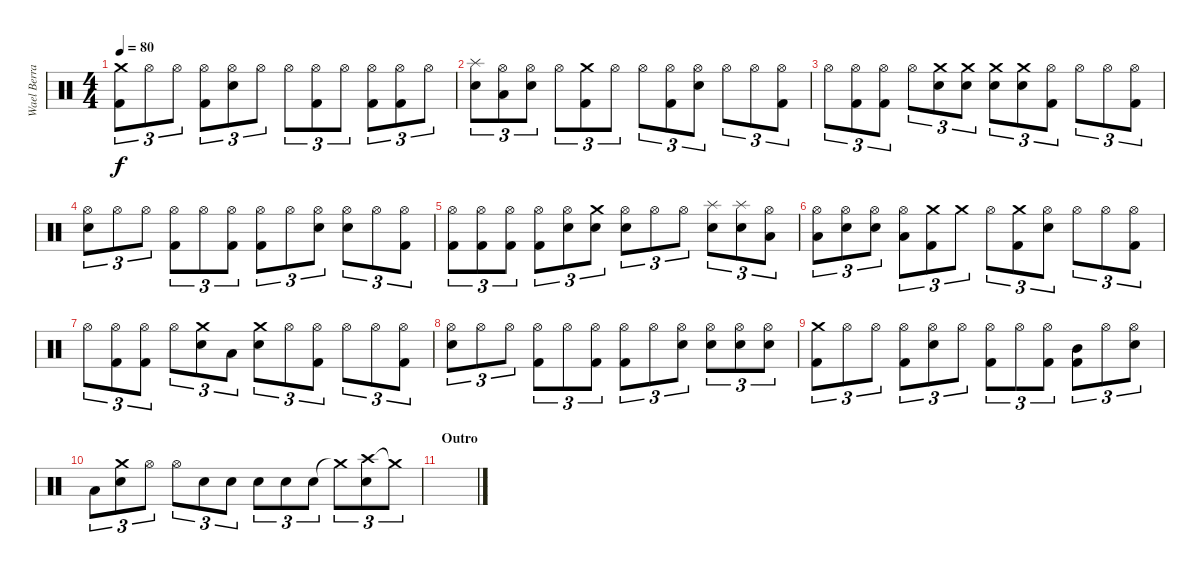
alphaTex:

\track ("Wael Berrais" "Wael Berra") {instrument percussion}
\staff {score}
\articulation defaults
\ts (4 4)
\tempo 80
\clef neutral
\ks c
("Crash medium (hit)" "Kick (hit) 2").8{tu (3 2) dy f} "Hi-Hat (open)".8{tu (3 2)} "Hi-Hat (open)".8{tu (3 2)} ("Hi-Hat (open)" "Kick (hit) 2").8{tu (3 2)} ("Hi-Hat (open)" "Electric Snare (hit)").8{tu (3 2)} "Hi-Hat (open)".8{tu (3 2)} "Hi-Hat (open)".8{tu (3 2)} ("Hi-Hat (open)" "Kick (hit) 2").8{tu (3 2)} "Hi-Hat (open)".8{tu (3 2)} ("Hi-Hat (open)" "Kick (hit) 2").8{tu (3 2)} ("Hi-Hat (open)" "Kick (hit) 2").8{tu (3 2)} "Hi-Hat (open)".8{tu (3 2)} |
("Splash (hit)" "Electric Snare (hit)").8{tu (3 2)} ("Hi-Hat (open)" "Low Tom (hit)").8{tu (3 2)} ("Hi-Hat (open)" "Electric Snare (hit)").8{tu (3 2)} "Hi-Hat (open)".8{tu (3 2)} ("Crash medium (hit)" "Kick (hit) 2").8{tu (3 2)} "Hi-Hat (open)".8{tu (3 2)} "Hi-Hat (open)".8{tu (3 2)} ("Hi-Hat (open)" "Kick (hit) 2").8{tu (3 2)} ("Hi-Hat (open)" "Electric Snare (hit)").8{tu (3 2)} "Hi-Hat (open)".8{tu (3 2)} "Hi-Hat (open)".8{tu (3 2)} ("Hi-Hat (open)" "Kick (hit) 2").8{tu (3 2)} |
"Hi-Hat (open)".8{tu (3 2)} ("Hi-Hat (open)" "Kick (hit) 2").8{tu (3 2)} ("Hi-Hat (open)" "Kick (hit) 2").8{tu (3 2)} "Hi-Hat (open)".8{tu (3 2)} ("Crash medium (hit)" "Electric Snare (hit)").8{tu (3 2)} ("Crash medium (hit)" "Electric Snare (hit)").8{tu (3 2)} ("Crash medium (hit)" "Electric Snare (hit)").8{tu (3 2)} ("Crash medium (hit)" "Electric Snare (hit)").8{tu (3 2)} ("Hi-Hat (open)" "Kick (hit) 2").8{tu (3 2)} "Hi-Hat (open)".8{tu (3 2)} "Hi-Hat (open)".8{tu (3 2)} ("Hi-Hat (open)" "Kick (hit) 2").8{tu (3 2)} |
("Hi-Hat (open)" "Electric Snare (hit)").8{tu (3 2)} "Hi-Hat (open)".8{tu (3 2)} "Hi-Hat (open)".8{tu (3 2)} ("Hi-Hat (open)" "Kick (hit) 2").8{tu (3 2)} "Hi-Hat (open)".8{tu (3 2)} ("Hi-Hat (open)" "Kick (hit) 2").8{tu (3 2)} ("Hi-Hat (open)" "Kick (hit) 2").8{tu (3 2)} "Hi-Hat (open)".8{tu (3 2)} ("Hi-Hat (open)" "Electric Snare (hit)").8{tu (3 2)} ("Hi-Hat (open)" "Electric Snare (hit)").8{tu (3 2)} "Hi-Hat (open)".8{tu (3 2)} ("Kick (hit) 2" "Hi-Hat (open)").8{tu (3 2)} |
("Kick (hit) 2" "Hi-Hat (open)").8{tu (3 2)} ("Kick (hit) 2" "Hi-Hat (open)").8{tu (3 2)} ("Kick (hit) 2" "Hi-Hat (open)").8{tu (3 2)} ("Kick (hit) 2" "Hi-Hat (open)").8{tu (3 2)} ("Hi-Hat (open)" "Electric Snare (hit)").8{tu (3 2)} ("Crash medium (hit)" "Electric Snare (hit)").8{tu (3 2)} ("Hi-Hat (open)" "Electric Snare (hit)").8{tu (3 2)} "Hi-Hat (open)".8{tu (3 2)} "Hi-Hat (open)".8{tu (3 2)} ("Electric Snare (hit)" "Splash (hit)").8{tu (3 2)} ("Electric Snare (hit)" "Splash (hit)").8{tu (3 2)} ("Hi-Hat (open)" "Low Tom (hit)").8{tu (3 2)} |
("Hi-Hat (open)" "Low Tom (hit)").8{tu (3 2)} ("Hi-Hat (open)" "Electric Snare (hit)").8{tu (3 2)} ("Hi-Hat (open)" "Electric Snare (hit)").8{tu (3 2)} ("Hi-Hat (open)" "Low Tom (hit)").8{tu (3 2)} ("Crash medium (hit)" "Kick (hit) 2").8{tu (3 2)} "Crash medium (hit)".8{tu (3 2)} "Hi-Hat (open)".8{tu (3 2)} ("Crash medium (hit)" "Kick (hit) 2").8{tu (3 2)} ("Hi-Hat (open)" "Electric Snare (hit)").8{tu (3 2)} "Hi-Hat (open)".8{tu (3 2)} "Hi-Hat (open)".8{tu (3 2)} ("Hi-Hat (open)" "Kick (hit) 2").8{tu (3 2)} |
"Hi-Hat (open)".8{tu (3 2)} ("Hi-Hat (open)" "Kick (hit) 2").8{tu (3 2)} ("Hi-Hat (open)" "Kick (hit) 2").8{tu (3 2)} "Hi-Hat (open)".8{tu (3 2)} ("Crash medium (hit)" "Electric Snare (hit)").8{tu (3 2)} "Low Tom (hit)".8{tu (3 2)} ("Crash medium (hit)" "Electric Snare (hit)").8{tu (3 2)} "Hi-Hat (open)".8{tu (3 2)} ("Hi-Hat (open)" "Kick (hit) 2").8{tu (3 2)} "Hi-Hat (open)".8{tu (3 2)} "Hi-Hat (open)".8{tu (3 2)} ("Kick (hit) 2" "Hi-Hat (open)").8{tu (3 2)} |
("Electric Snare (hit)" "Hi-Hat (open)").8{tu (3 2)} "Hi-Hat (open)".8{tu (3 2)} "Hi-Hat (open)".8{tu (3 2)} ("Hi-Hat (open)" "Kick (hit) 2").8{tu (3 2)} "Hi-Hat (open)".8{tu (3 2)} ("Hi-Hat (open)" "Kick (hit) 2").8{tu (3 2)} ("Hi-Hat (open)" "Kick (hit) 2").8{tu (3 2)} "Hi-Hat (open)".8{tu (3 2)} ("Electric Snare (hit)" "Hi-Hat (open)").8{tu (3 2)} ("Electric Snare (hit)" "Hi-Hat (open)").8{tu (3 2)} ("Hi-Hat (open)" "Electric Snare (hit)").8{tu (3 2)} ("Hi-Hat (open)" "Electric Snare (hit)").8{tu (3 2)} |
("Crash medium (hit)" "Kick (hit) 2").8{tu (3 2)} "Hi-Hat (open)".8{tu (3 2)} "Hi-Hat (open)".8{tu (3 2)} ("Hi-Hat (open)" "Kick (hit) 2").8{tu (3 2)} ("Hi-Hat (open)" "Electric Snare (hit)").8{tu (3 2)} "Hi-Hat (open)".8{tu (3 2)} ("Hi-Hat (open)" "Kick (hit) 2").8{tu (3 2)} "Hi-Hat (open)".8{tu (3 2)} ("Hi-Hat (open)" "Kick (hit) 2").8{tu (3 2)} ("Mid Tom (hit)" "Kick (hit) 2").8{tu (3 2)} "Hi-Hat (open)".8{tu (3 2)} ("Hi-Hat (open)" "Electric Snare (hit)").8{tu (3 2)} |
"Low Tom (hit)".8{tu (3 2)} ("Crash medium (hit)" "Electric Snare (hit)").8{tu (3 2)} "Hi-Hat (open)".8{tu (3 2)} "Hi-Hat (open)".8{tu (3 2)} "Electric Snare (hit)".8{tu (3 2)} "Electric Snare (hit)".8{tu (3 2)} "Electric Snare (hit)".8{tu (3 2)} "Electric Snare (hit)".8{tu (3 2)} "Electric Snare (hit)".8{tu (3 2)} "Crash medium (hit)"{t}.8{tu (3 2)} ("Crash high (hit)" "Electric Snare (hit)").8{tu (3 2)} "Crash medium (hit)"{t}.8{tu (3 2)} |
\section ("" "Outro")
